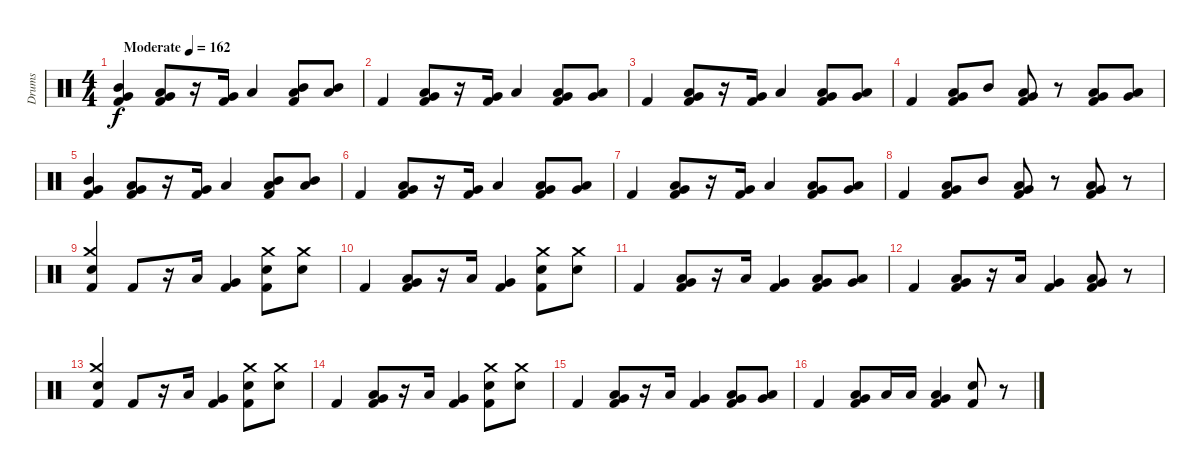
\track ("Drums" "Drums") {instrument percussion}
\staff {score}
\articulation defaults
\ts (4 4)
\tempo (162 "Moderate")
\clef neutral
\ks c
("Very Low Tom (hit)" "Mid Tom (hit)" "Kick (hit) 2").4{dy f} ("Very Low Tom (hit)" "Low Tom (hit)" "Kick (hit) 2").8 r.16 ("Very Low Tom (hit)" "Kick (hit) 2").16 "Low Floor Tom (hit)".4 ("Low Floor Tom (hit)" "Mid Tom (hit)" "Kick (hit) 2").8 ("Low Floor Tom (hit)" "Mid Tom (hit)").8 |
"Kick (hit) 2".4 ("Low Floor Tom (hit)" "Very Low Tom (hit)" "Kick (hit) 2").8 r.16 ("Very Low Tom (hit)" "Kick (hit) 2").16 "Low Floor Tom (hit)".4 ("Low Floor Tom (hit)" "Very Low Tom (hit)" "Kick (hit) 2").8 ("Low Floor Tom (hit)" "Very Low Tom (hit)").8 |
"Kick (hit) 2".4 ("Low Floor Tom (hit)" "Very Low Tom (hit)" "Kick (hit) 2").8 r.16 ("Very Low Tom (hit)" "Kick (hit) 2").16 "Low Floor Tom (hit)".4 ("Low Floor Tom (hit)" "Very Low Tom (hit)" "Kick (hit) 2").8 ("Low Floor Tom (hit)" "Very Low Tom (hit)").8 |
"Kick (hit) 2".4 ("Low Floor Tom (hit)" "Very Low Tom (hit)" "Kick (hit) 2").8 "Mid Tom (hit)".8 ("Low Floor Tom (hit)" "Very Low Tom (hit)" "Kick (hit) 2").8 r.8 ("Low Floor Tom (hit)" "Very Low Tom (hit)" "Kick (hit) 2").8 ("Low Floor Tom (hit)" "Very Low Tom (hit)").8 |
("Very Low Tom (hit)" "Mid Tom (hit)" "Kick (hit) 2").4 ("Very Low Tom (hit)" "Low Tom (hit)" "Kick (hit) 2").8 r.16 ("Very Low Tom (hit)" "Kick (hit) 2").16 "Low Floor Tom (hit)".4 ("Low Floor Tom (hit)" "Mid Tom (hit)" "Kick (hit) 2").8 ("Low Floor Tom (hit)" "Mid Tom (hit)").8 |
"Kick (hit) 2".4 ("Low Floor Tom (hit)" "Very Low Tom (hit)" "Kick (hit) 2").8 r.16 ("Very Low Tom (hit)" "Kick (hit) 2").16 "Low Floor Tom (hit)".4 ("Low Floor Tom (hit)" "Very Low Tom (hit)" "Kick (hit) 2").8 ("Low Floor Tom (hit)" "Very Low Tom (hit)").8 |
"Kick (hit) 2".4 ("Low Floor Tom (hit)" "Very Low Tom (hit)" "Kick (hit) 2").8 r.16 ("Very Low Tom (hit)" "Kick (hit) 2").16 "Low Floor Tom (hit)".4 ("Low Floor Tom (hit)" "Very Low Tom (hit)" "Kick (hit) 2").8 ("Low Floor Tom (hit)" "Very Low Tom (hit)").8 |
"Kick (hit) 2".4 ("Low Floor Tom (hit)" "Very Low Tom (hit)" "Kick (hit) 2").8 "Mid Tom (hit)".8 ("Low Floor Tom (hit)" "Very Low Tom (hit)" "Kick (hit) 2").8 r.8 ("Low Floor Tom (hit)" "Very Low Tom (hit)" "Kick (hit) 2").8 r.8 |
("Crash medium (hit)" "Snare (hit) 2" "Kick (hit) 2").4 "Kick (hit) 2".8 r.16 "Low Tom (hit)".16 ("Very Low Tom (hit)" "Kick (hit) 2").4 ("Crash medium (hit)" "Snare (hit) 2" "Kick (hit) 2").8 ("Crash medium (hit)" "Snare (hit) 2").8 |
"Kick (hit) 2".4 ("Very Low Tom (hit)" "Low Tom (hit)" "Kick (hit) 2").8 r.16 "Low Tom (hit)".16 ("Very Low Tom (hit)" "Kick (hit) 2").4 ("Crash medium (hit)" "Snare (hit) 2" "Kick (hit) 2").8 ("Crash medium (hit)" "Snare (hit) 2").8 |
"Kick (hit) 2".4 ("Very Low Tom (hit)" "Low Tom (hit)" "Kick (hit) 2").8 r.16 "Low Tom (hit)".16 ("Very Low Tom (hit)" "Kick (hit) 2").4 ("Low Floor Tom (hit)" "Very Low Tom (hit)" "Kick (hit) 2").8 ("Low Floor Tom (hit)" "Very Low Tom (hit)").8 |
"Kick (hit) 2".4 ("Very Low Tom (hit)" "Low Tom (hit)" "Kick (hit) 2").8 r.16 "Low Tom (hit)".16 ("Very Low Tom (hit)" "Kick (hit) 2").4 ("Low Floor Tom (hit)" "Very Low Tom (hit)" "Kick (hit) 2").8 r.8 |
("Crash medium (hit)" "Snare (hit) 2" "Kick (hit) 2").4 "Kick (hit) 2".8 r.16 "Low Tom (hit)".16 ("Very Low Tom (hit)" "Kick (hit) 2").4 ("Crash medium (hit)" "Snare (hit) 2" "Kick (hit) 2").8 ("Crash medium (hit)" "Snare (hit) 2").8 |
"Kick (hit) 2".4 ("Very Low Tom (hit)" "Low Tom (hit)" "Kick (hit) 2").8 r.16 "Low Tom (hit)".16 ("Very Low Tom (hit)" "Kick (hit) 2").4 ("Crash medium (hit)" "Snare (hit) 2" "Kick (hit) 2").8 ("Crash medium (hit)" "Snare (hit) 2").8 |
"Kick (hit) 2".4 ("Very Low Tom (hit)" "Low Tom (hit)" "Kick (hit) 2").8 r.16 "Low Tom (hit)".16 ("Very Low Tom (hit)" "Kick (hit) 2").4 ("Low Floor Tom (hit)" "Very Low Tom (hit)" "Kick (hit) 2").8 ("Low Floor Tom (hit)" "Very Low Tom (hit)").8 |
"Kick (hit) 2".4 ("Very Low Tom (hit)" "Low Tom (hit)" "Kick (hit) 2").8 "Low Tom (hit)".16 "Low Tom (hit)".16 ("Low Floor Tom (hit)" "Very Low Tom (hit)" "Kick (hit) 2").4 ("Snare (hit) 2" "Kick (hit) 2").8 r.8
